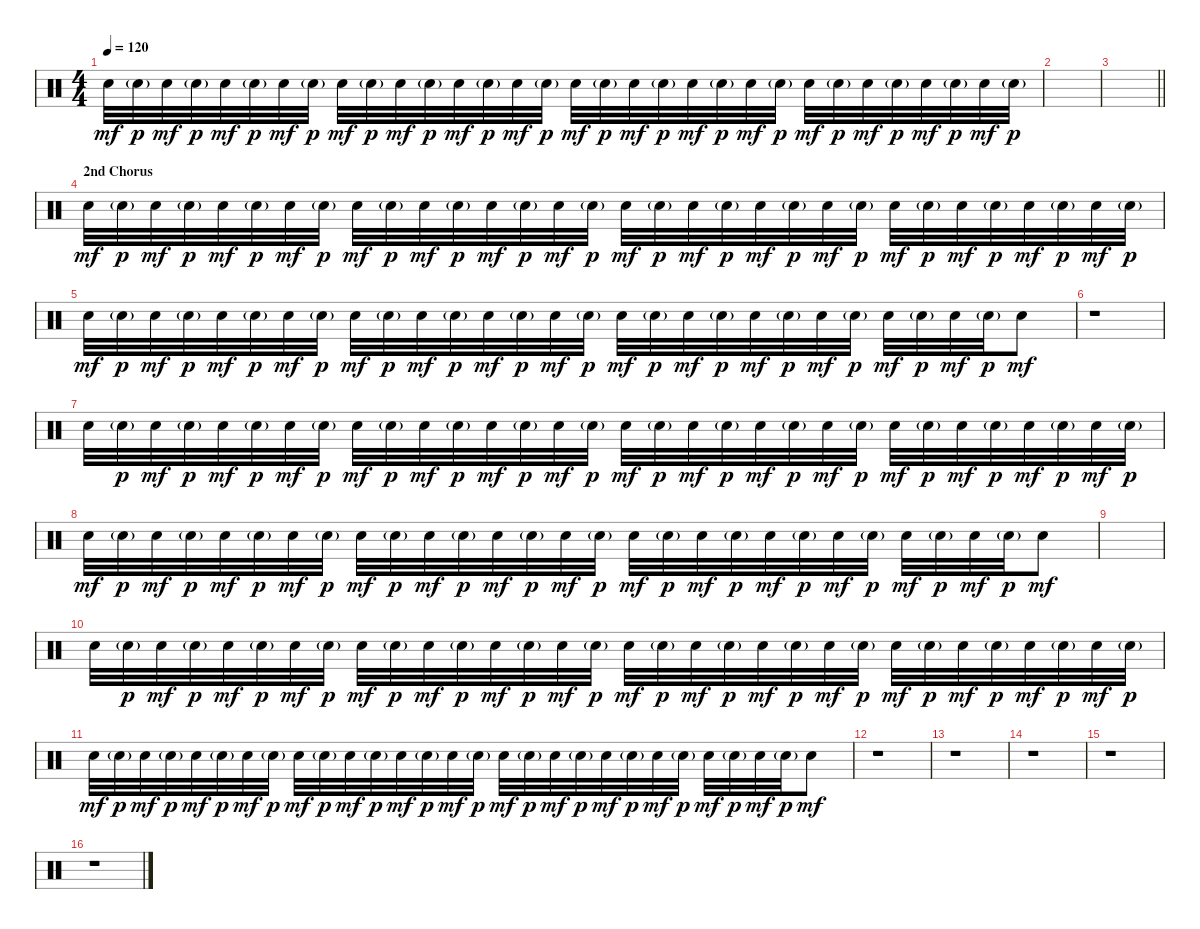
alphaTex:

\track "" {instrument percussion}
\staff {score}
\articulation defaults
\ts (4 4)
\tempo 120
\clef neutral
\ks c "Electric Snare (hit)".32{dy mf} "Electric Snare (hit)"{g}.32{dy p} "Electric Snare (hit)".32{dy mf} "Electric Snare (hit)"{g}.32{dy p} "Electric Snare (hit)".32{dy mf} "Electric Snare (hit)"{g}.32{dy p} "Electric Snare (hit)".32{dy mf} "Electric Snare (hit)"{g}.32{dy p} "Electric Snare (hit)".32{dy mf} "Electric Snare (hit)"{g}.32{dy p} "Electric Snare (hit)".32{dy mf} "Electric Snare (hit)"{g}.32{dy p} "Electric Snare (hit)".32{dy mf} "Electric Snare (hit)"{g}.32{dy p} "Electric Snare (hit)".32{dy mf} "Electric Snare (hit)"{g}.32{dy p} "Electric Snare (hit)".32{dy mf} "Electric Snare (hit)"{g}.32{dy p} "Electric Snare (hit)".32{dy mf} "Electric Snare (hit)"{g}.32{dy p} "Electric Snare (hit)".32{dy mf} "Electric Snare (hit)"{g}.32{dy p} "Electric Snare (hit)".32{dy mf} "Electric Snare (hit)"{g}.32{dy p} "Electric Snare (hit)".32{dy mf} "Electric Snare (hit)"{g}.32{dy p} "Electric Snare (hit)".32{dy mf} "Electric Snare (hit)"{g}.32{dy p} "Electric Snare (hit)".32{dy mf} "Electric Snare (hit)"{g}.32{dy p} "Electric Snare (hit)".32{dy mf} "Electric Snare (hit)"{g}.32{dy p}
|
|
\barLineRight lightlight
|
\section ("" "2nd Chorus")
"Electric Snare (hit)".32{dy mf} "Electric Snare (hit)"{g}.32{dy p} "Electric Snare (hit)".32{dy mf} "Electric Snare (hit)"{g}.32{dy p} "Electric Snare (hit)".32{dy mf} "Electric Snare (hit)"{g}.32{dy p} "Electric Snare (hit)".32{dy mf} "Electric Snare (hit)"{g}.32{dy p} "Electric Snare (hit)".32{dy mf} "Electric Snare (hit)"{g}.32{dy p} "Electric Snare (hit)".32{dy mf} "Electric Snare (hit)"{g}.32{dy p} "Electric Snare (hit)".32{dy mf} "Electric Snare (hit)"{g}.32{dy p} "Electric Snare (hit)".32{dy mf} "Electric Snare (hit)"{g}.32{dy p} "Electric Snare (hit)".32{dy mf} "Electric Snare (hit)"{g}.32{dy p} "Electric Snare (hit)".32{dy mf} "Electric Snare (hit)"{g}.32{dy p} "Electric Snare (hit)".32{dy mf} "Electric Snare (hit)"{g}.32{dy p} "Electric Snare (hit)".32{dy mf} "Electric Snare (hit)"{g}.32{dy p} "Electric Snare (hit)".32{dy mf} "Electric Snare (hit)"{g}.32{dy p} "Electric Snare (hit)".32{dy mf} "Electric Snare (hit)"{g}.32{dy p} "Electric Snare (hit)".32{dy mf} "Electric Snare (hit)"{g}.32{dy p} "Electric Snare (hit)".32{dy mf} "Electric Snare (hit)"{g}.32{dy p} |
"Electric Snare (hit)".32{dy mf} "Electric Snare (hit)"{g}.32{dy p} "Electric Snare (hit)".32{dy mf} "Electric Snare (hit)"{g}.32{dy p} "Electric Snare (hit)".32{dy mf} "Electric Snare (hit)"{g}.32{dy p} "Electric Snare (hit)".32{dy mf} "Electric Snare (hit)"{g}.32{dy p} "Electric Snare (hit)".32{dy mf} "Electric Snare (hit)"{g}.32{dy p} "Electric Snare (hit)".32{dy mf} "Electric Snare (hit)"{g}.32{dy p} "Electric Snare (hit)".32{dy mf} "Electric Snare (hit)"{g}.32{dy p} "Electric Snare (hit)".32{dy mf} "Electric Snare (hit)"{g}.32{dy p} "Electric Snare (hit)".32{dy mf} "Electric Snare (hit)"{g}.32{dy p} "Electric Snare (hit)".32{dy mf} "Electric Snare (hit)"{g}.32{dy p} "Electric Snare (hit)".32{dy mf} "Electric Snare (hit)"{g}.32{dy p} "Electric Snare (hit)".32{dy mf} "Electric Snare (hit)"{g}.32{dy p} "Electric Snare (hit)".32{dy mf} "Electric Snare (hit)"{g}.32{dy p} "Electric Snare (hit)".32{dy mf} "Electric Snare (hit)"{g}.32{dy p} "Electric Snare (hit)".8{dy mf} |
r.1 |
"Electric Snare (hit)".32 "Electric Snare (hit)"{g}.32{dy p} "Electric Snare (hit)".32{dy mf} "Electric Snare (hit)"{g}.32{dy p} "Electric Snare (hit)".32{dy mf} "Electric Snare (hit)"{g}.32{dy p} "Electric Snare (hit)".32{dy mf} "Electric Snare (hit)"{g}.32{dy p} "Electric Snare (hit)".32{dy mf} "Electric Snare (hit)"{g}.32{dy p} "Electric Snare (hit)".32{dy mf} "Electric Snare (hit)"{g}.32{dy p} "Electric Snare (hit)".32{dy mf} "Electric Snare (hit)"{g}.32{dy p} "Electric Snare (hit)".32{dy mf} "Electric Snare (hit)"{g}.32{dy p} "Electric Snare (hit)".32{dy mf} "Electric Snare (hit)"{g}.32{dy p} "Electric Snare (hit)".32{dy mf} "Electric Snare (hit)"{g}.32{dy p} "Electric Snare (hit)".32{dy mf} "Electric Snare (hit)"{g}.32{dy p} "Electric Snare (hit)".32{dy mf} "Electric Snare (hit)"{g}.32{dy p} "Electric Snare (hit)".32{dy mf} "Electric Snare (hit)"{g}.32{dy p} "Electric Snare (hit)".32{dy mf} "Electric Snare (hit)"{g}.32{dy p} "Electric Snare (hit)".32{dy mf} "Electric Snare (hit)"{g}.32{dy p} "Electric Snare (hit)".32{dy mf} "Electric Snare (hit)"{g}.32{dy p} |
"Electric Snare (hit)".32{dy mf} "Electric Snare (hit)"{g}.32{dy p} "Electric Snare (hit)".32{dy mf} "Electric Snare (hit)"{g}.32{dy p} "Electric Snare (hit)".32{dy mf} "Electric Snare (hit)"{g}.32{dy p} "Electric Snare (hit)".32{dy mf} "Electric Snare (hit)"{g}.32{dy p} "Electric Snare (hit)".32{dy mf} "Electric Snare (hit)"{g}.32{dy p} "Electric Snare (hit)".32{dy mf} "Electric Snare (hit)"{g}.32{dy p} "Electric Snare (hit)".32{dy mf} "Electric Snare (hit)"{g}.32{dy p} "Electric Snare (hit)".32{dy mf} "Electric Snare (hit)"{g}.32{dy p} "Electric Snare (hit)".32{dy mf} "Electric Snare (hit)"{g}.32{dy p} "Electric Snare (hit)".32{dy mf} "Electric Snare (hit)"{g}.32{dy p} "Electric Snare (hit)".32{dy mf} "Electric Snare (hit)"{g}.32{dy p} "Electric Snare (hit)".32{dy mf} "Electric Snare (hit)"{g}.32{dy p} "Electric Snare (hit)".32{dy mf} "Electric Snare (hit)"{g}.32{dy p} "Electric Snare (hit)".32{dy mf} "Electric Snare (hit)"{g}.32{dy p} "Electric Snare (hit)".8{dy mf} |
|
"Electric Snare (hit)".32 "Electric Snare (hit)"{g}.32{dy p} "Electric Snare (hit)".32{dy mf} "Electric Snare (hit)"{g}.32{dy p} "Electric Snare (hit)".32{dy mf} "Electric Snare (hit)"{g}.32{dy p} "Electric Snare (hit)".32{dy mf} "Electric Snare (hit)"{g}.32{dy p} "Electric Snare (hit)".32{dy mf} "Electric Snare (hit)"{g}.32{dy p} "Electric Snare (hit)".32{dy mf} "Electric Snare (hit)"{g}.32{dy p} "Electric Snare (hit)".32{dy mf} "Electric Snare (hit)"{g}.32{dy p} "Electric Snare (hit)".32{dy mf} "Electric Snare (hit)"{g}.32{dy p} "Electric Snare (hit)".32{dy mf} "Electric Snare (hit)"{g}.32{dy p} "Electric Snare (hit)".32{dy mf} "Electric Snare (hit)"{g}.32{dy p} "Electric Snare (hit)".32{dy mf} "Electric Snare (hit)"{g}.32{dy p} "Electric Snare (hit)".32{dy mf} "Electric Snare (hit)"{g}.32{dy p} "Electric Snare (hit)".32{dy mf} "Electric Snare (hit)"{g}.32{dy p} "Electric Snare (hit)".32{dy mf} "Electric Snare (hit)"{g}.32{dy p} "Electric Snare (hit)".32{dy mf} "Electric Snare (hit)"{g}.32{dy p} "Electric Snare (hit)".32{dy mf} "Electric Snare (hit)"{g}.32{dy p} |
"Electric Snare (hit)".32{dy mf} "Electric Snare (hit)"{g}.32{dy p} "Electric Snare (hit)".32{dy mf} "Electric Snare (hit)"{g}.32{dy p} "Electric Snare (hit)".32{dy mf} "Electric Snare (hit)"{g}.32{dy p} "Electric Snare (hit)".32{dy mf} "Electric Snare (hit)"{g}.32{dy p} "Electric Snare (hit)".32{dy mf} "Electric Snare (hit)"{g}.32{dy p} "Electric Snare (hit)".32{dy mf} "Electric Snare (hit)"{g}.32{dy p} "Electric Snare (hit)".32{dy mf} "Electric Snare (hit)"{g}.32{dy p} "Electric Snare (hit)".32{dy mf} "Electric Snare (hit)"{g}.32{dy p} "Electric Snare (hit)".32{dy mf} "Electric Snare (hit)"{g}.32{dy p} "Electric Snare (hit)".32{dy mf} "Electric Snare (hit)"{g}.32{dy p} "Electric Snare (hit)".32{dy mf} "Electric Snare (hit)"{g}.32{dy p} "Electric Snare (hit)".32{dy mf} "Electric Snare (hit)"{g}.32{dy p} "Electric Snare (hit)".32{dy mf} "Electric Snare (hit)"{g}.32{dy p} "Electric Snare (hit)".32{dy mf} "Electric Snare (hit)"{g}.32{dy p} "Electric Snare (hit)".8{dy mf} |
r.1 |
r.1 |
r.1 |
r.1 |
r.1
